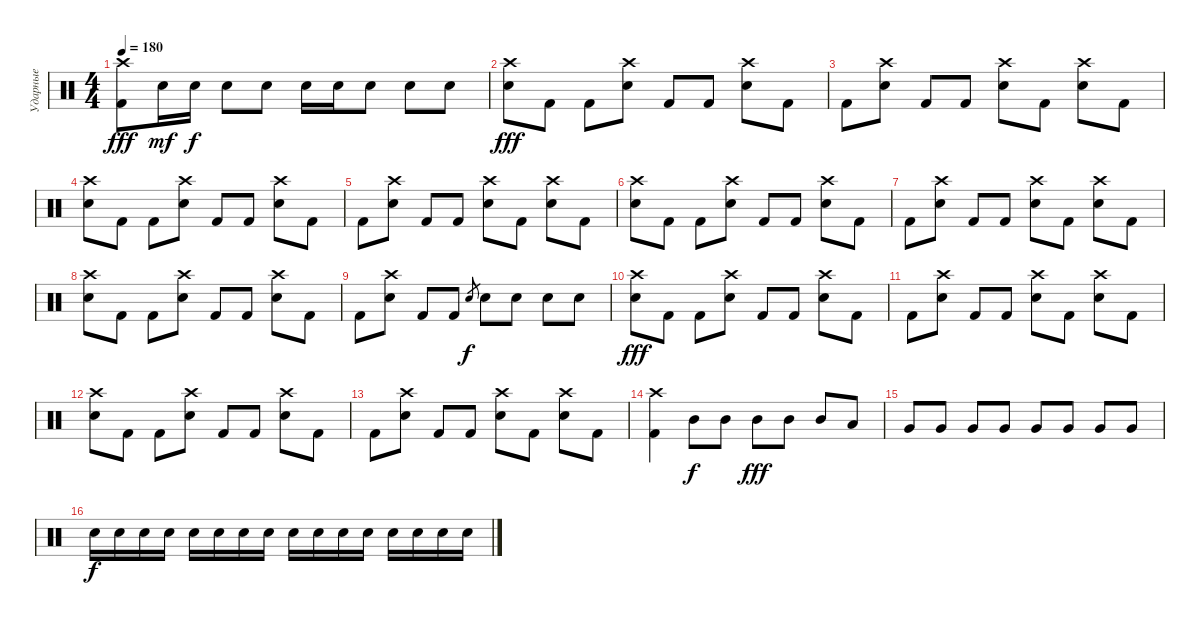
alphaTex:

\track ("Ударные" "Ударные") {instrument percussion}
\staff
\articulation defaults
\ts (4 4)
\tempo 180
\clef neutral
\ks c
("Kick (hit) 2" "Crash high (hit)").8{dy fff} "Snare (hit) 2".16{dy mf} "Snare (hit) 2".16{dy f} "Snare (hit) 2".8 "Snare (hit) 2".8 "Snare (hit) 2".16 "Snare (hit) 2".16 "Snare (hit) 2".8 "Snare (hit) 2".8 "Snare (hit) 2".8 |
("Snare (hit) 2" "Crash high (hit)").8{dy fff} "Kick (hit) 2".8 "Kick (hit) 2".8 ("Snare (hit) 2" "Crash high (hit)").8 "Kick (hit) 2".8 "Kick (hit) 2".8 ("Snare (hit) 2" "Crash high (hit)").8 "Kick (hit) 2".8 |
"Kick (hit) 2".8 ("Snare (hit) 2" "Crash high (hit)").8 "Kick (hit) 2".8 "Kick (hit) 2".8 ("Snare (hit) 2" "Crash high (hit)").8 "Kick (hit) 2".8 ("Snare (hit) 2" "Crash high (hit)").8 "Kick (hit) 2".8 |
("Snare (hit) 2" "Crash high (hit)").8 "Kick (hit) 2".8 "Kick (hit) 2".8 ("Snare (hit) 2" "Crash high (hit)").8 "Kick (hit) 2".8 "Kick (hit) 2".8 ("Snare (hit) 2" "Crash high (hit)").8 "Kick (hit) 2".8 |
"Kick (hit) 2".8 ("Snare (hit) 2" "Crash high (hit)").8 "Kick (hit) 2".8 "Kick (hit) 2".8 ("Snare (hit) 2" "Crash high (hit)").8 "Kick (hit) 2".8 ("Snare (hit) 2" "Crash high (hit)").8 "Kick (hit) 2".8 |
("Snare (hit) 2" "Crash high (hit)").8 "Kick (hit) 2".8 "Kick (hit) 2".8 ("Snare (hit) 2" "Crash high (hit)").8 "Kick (hit) 2".8 "Kick (hit) 2".8 ("Snare (hit) 2" "Crash high (hit)").8 "Kick (hit) 2".8 |
"Kick (hit) 2".8 ("Snare (hit) 2" "Crash high (hit)").8 "Kick (hit) 2".8 "Kick (hit) 2".8 ("Snare (hit) 2" "Crash high (hit)").8 "Kick (hit) 2".8 ("Snare (hit) 2" "Crash high (hit)").8 "Kick (hit) 2".8 |
("Snare (hit) 2" "Crash high (hit)").8 "Kick (hit) 2".8 "Kick (hit) 2".8 ("Snare (hit) 2" "Crash high (hit)").8 "Kick (hit) 2".8 "Kick (hit) 2".8 ("Snare (hit) 2" "Crash high (hit)").8 "Kick (hit) 2".8 |
"Kick (hit) 2".8 ("Snare (hit) 2" "Crash high (hit)").8 "Kick (hit) 2".8 "Kick (hit) 2".8 "Electric Snare (hit)".8{gr dy f} "Electric Snare (hit)".8 "Electric Snare (hit)".8 "Electric Snare (hit)".8 "Electric Snare (hit)".8 |
("Snare (hit) 2" "Crash high (hit)").8{dy fff} "Kick (hit) 2".8 "Kick (hit) 2".8 ("Snare (hit) 2" "Crash high (hit)").8 "Kick (hit) 2".8 "Kick (hit) 2".8 ("Snare (hit) 2" "Crash high (hit)").8 "Kick (hit) 2".8 |
"Kick (hit) 2".8 ("Snare (hit) 2" "Crash high (hit)").8 "Kick (hit) 2".8 "Kick (hit) 2".8 ("Snare (hit) 2" "Crash high (hit)").8 "Kick (hit) 2".8 ("Snare (hit) 2" "Crash high (hit)").8 "Kick (hit) 2".8 |
("Snare (hit) 2" "Crash high (hit)").8 "Kick (hit) 2".8 "Kick (hit) 2".8 ("Snare (hit) 2" "Crash high (hit)").8 "Kick (hit) 2".8 "Kick (hit) 2".8 ("Snare (hit) 2" "Crash high (hit)").8 "Kick (hit) 2".8 |
"Kick (hit) 2".8 ("Snare (hit) 2" "Crash high (hit)").8 "Kick (hit) 2".8 "Kick (hit) 2".8 ("Snare (hit) 2" "Crash high (hit)").8 "Kick (hit) 2".8 ("Snare (hit) 2" "Crash high (hit)").8 "Kick (hit) 2".8 |
("Kick (hit) 2" "Crash high (hit)").4 "Mid Tom (hit)".8{dy f} "Mid Tom (hit)".8 "Mid Tom (hit)".8{dy fff} "Mid Tom (hit)".8 "Mid Tom (hit)".8 "Low Tom (hit)".8 |
"Very Low Tom (hit)".8 "Very Low Tom (hit)".8 "Very Low Tom (hit)".8 "Very Low Tom (hit)".8 "Very Low Tom (hit)".8 "Very Low Tom (hit)".8 "Very Low Tom (hit)".8 "Very Low Tom (hit)".8 |
"Snare (hit) 2".16{dy f} "Snare (hit) 2".16 "Snare (hit) 2".16 "Snare (hit) 2".16 "Snare (hit) 2".16 "Snare (hit) 2".16 "Snare (hit) 2".16 "Snare (hit) 2".16 "Snare (hit) 2".16 "Snare (hit) 2".16 "Snare (hit) 2".16 "Snare (hit) 2".16 "Snare (hit) 2".16 "Snare (hit) 2".16 "Snare (hit) 2".16 "Snare (hit) 2".16
